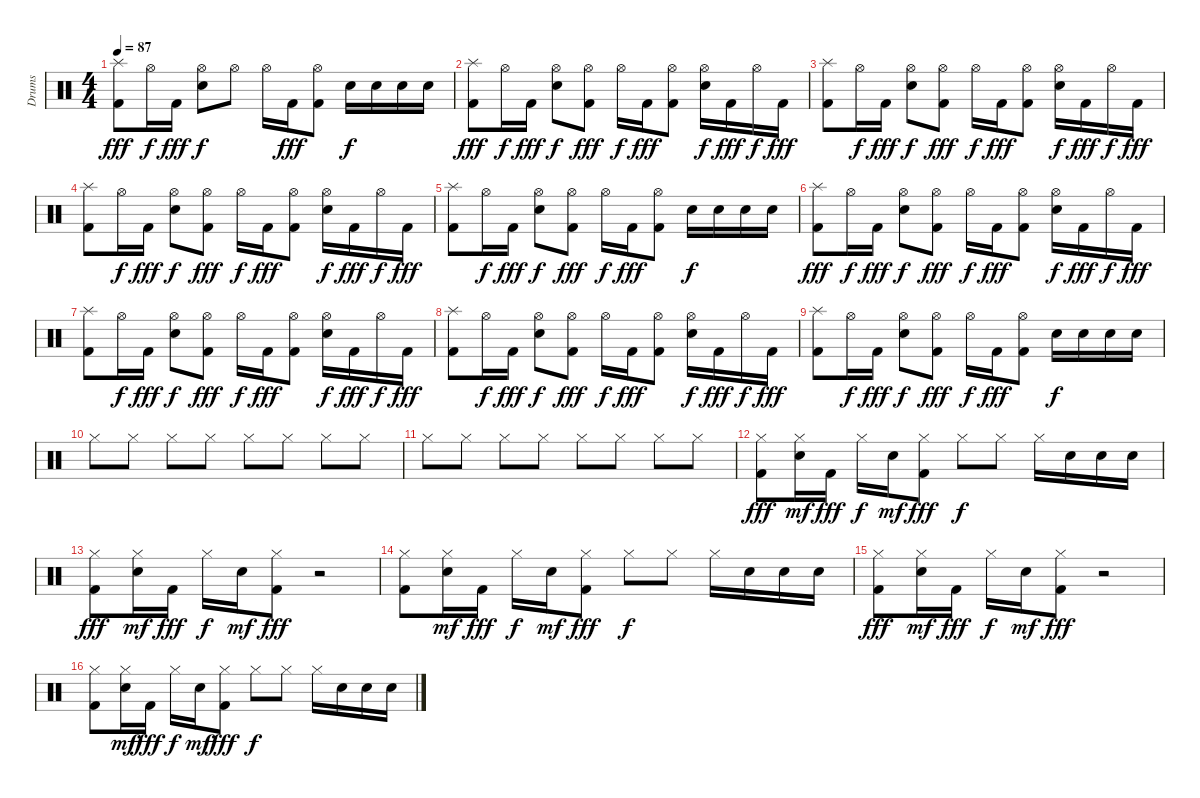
\track ("Drums" "Drums") {instrument percussion}
\staff {score}
\articulation defaults
\ts (4 4)
\tempo 87
\clef neutral
\ks c
("Splash (hit)" "Kick (hit) 2").8{dy fff} "Hi-Hat (open)".16{dy f} "Kick (hit) 2".16{dy fff} ("Hi-Hat (open)" "Snare (hit) 2").8{dy f} "Hi-Hat (open)".8 "Hi-Hat (open)".16 "Kick (hit) 2".16{dy fff} ("Hi-Hat (open)" "Kick (hit) 2").8 "Snare (hit) 2".16{dy f} "Snare (hit) 2".16 "Snare (hit) 2".16 "Snare (hit) 2".16 |
("Splash (hit)" "Kick (hit) 2").8{dy fff} "Hi-Hat (open)".16{dy f} "Kick (hit) 2".16{dy fff} ("Hi-Hat (open)" "Snare (hit) 2").8{dy f} ("Hi-Hat (open)" "Kick (hit) 2").8{dy fff} "Hi-Hat (open)".16{dy f} "Kick (hit) 2".16{dy fff} ("Hi-Hat (open)" "Kick (hit) 2").8 ("Hi-Hat (open)" "Snare (hit) 2").16{dy f} "Kick (hit) 2".16{dy fff} "Hi-Hat (open)".16{dy f} "Kick (hit) 2".16{dy fff} |
("Splash (hit)" "Kick (hit) 2").8 "Hi-Hat (open)".16{dy f} "Kick (hit) 2".16{dy fff} ("Hi-Hat (open)" "Snare (hit) 2").8{dy f} ("Hi-Hat (open)" "Kick (hit) 2").8{dy fff} "Hi-Hat (open)".16{dy f} "Kick (hit) 2".16{dy fff} ("Hi-Hat (open)" "Kick (hit) 2").8 ("Hi-Hat (open)" "Snare (hit) 2").16{dy f} "Kick (hit) 2".16{dy fff} "Hi-Hat (open)".16{dy f} "Kick (hit) 2".16{dy fff} |
("Splash (hit)" "Kick (hit) 2").8 "Hi-Hat (open)".16{dy f} "Kick (hit) 2".16{dy fff} ("Hi-Hat (open)" "Snare (hit) 2").8{dy f} ("Hi-Hat (open)" "Kick (hit) 2").8{dy fff} "Hi-Hat (open)".16{dy f} "Kick (hit) 2".16{dy fff} ("Hi-Hat (open)" "Kick (hit) 2").8 ("Hi-Hat (open)" "Snare (hit) 2").16{dy f} "Kick (hit) 2".16{dy fff} "Hi-Hat (open)".16{dy f} "Kick (hit) 2".16{dy fff} |
("Splash (hit)" "Kick (hit) 2").8 "Hi-Hat (open)".16{dy f} "Kick (hit) 2".16{dy fff} ("Hi-Hat (open)" "Snare (hit) 2").8{dy f} ("Hi-Hat (open)" "Kick (hit) 2").8{dy fff} "Hi-Hat (open)".16{dy f} "Kick (hit) 2".16{dy fff} ("Hi-Hat (open)" "Kick (hit) 2").8 "Snare (hit) 2".16{dy f} "Snare (hit) 2".16 "Snare (hit) 2".16 "Snare (hit) 2".16 |
("Splash (hit)" "Kick (hit) 2").8{dy fff} "Hi-Hat (open)".16{dy f} "Kick (hit) 2".16{dy fff} ("Hi-Hat (open)" "Snare (hit) 2").8{dy f} ("Hi-Hat (open)" "Kick (hit) 2").8{dy fff} "Hi-Hat (open)".16{dy f} "Kick (hit) 2".16{dy fff} ("Hi-Hat (open)" "Kick (hit) 2").8 ("Hi-Hat (open)" "Snare (hit) 2").16{dy f} "Kick (hit) 2".16{dy fff} "Hi-Hat (open)".16{dy f} "Kick (hit) 2".16{dy fff} |
("Splash (hit)" "Kick (hit) 2").8 "Hi-Hat (open)".16{dy f} "Kick (hit) 2".16{dy fff} ("Hi-Hat (open)" "Snare (hit) 2").8{dy f} ("Hi-Hat (open)" "Kick (hit) 2").8{dy fff} "Hi-Hat (open)".16{dy f} "Kick (hit) 2".16{dy fff} ("Hi-Hat (open)" "Kick (hit) 2").8 ("Hi-Hat (open)" "Snare (hit) 2").16{dy f} "Kick (hit) 2".16{dy fff} "Hi-Hat (open)".16{dy f} "Kick (hit) 2".16{dy fff} |
("Splash (hit)" "Kick (hit) 2").8 "Hi-Hat (open)".16{dy f} "Kick (hit) 2".16{dy fff} ("Hi-Hat (open)" "Snare (hit) 2").8{dy f} ("Hi-Hat (open)" "Kick (hit) 2").8{dy fff} "Hi-Hat (open)".16{dy f} "Kick (hit) 2".16{dy fff} ("Hi-Hat (open)" "Kick (hit) 2").8 ("Hi-Hat (open)" "Snare (hit) 2").16{dy f} "Kick (hit) 2".16{dy fff} "Hi-Hat (open)".16{dy f} "Kick (hit) 2".16{dy fff} |
("Splash (hit)" "Kick (hit) 2").8 "Hi-Hat (open)".16{dy f} "Kick (hit) 2".16{dy fff} ("Hi-Hat (open)" "Snare (hit) 2").8{dy f} ("Hi-Hat (open)" "Kick (hit) 2").8{dy fff} "Hi-Hat (open)".16{dy f} "Kick (hit) 2".16{dy fff} ("Hi-Hat (open)" "Kick (hit) 2").8 "Snare (hit) 2".16{dy f} "Snare (hit) 2".16 "Snare (hit) 2".16 "Snare (hit) 2".16 |
"Hi-Hat (closed)".8 "Hi-Hat (closed)".8 "Hi-Hat (closed)".8 "Hi-Hat (closed)".8 "Hi-Hat (closed)".8 "Hi-Hat (closed)".8 "Hi-Hat (closed)".8 "Hi-Hat (closed)".8 |
"Hi-Hat (closed)".8 "Hi-Hat (closed)".8 "Hi-Hat (closed)".8 "Hi-Hat (closed)".8 "Hi-Hat (closed)".8 "Hi-Hat (closed)".8 "Hi-Hat (closed)".8 "Hi-Hat (closed)".8 |
("Hi-Hat (closed)" "Kick (hit) 2").8{dy fff} ("Hi-Hat (closed)" "Snare (hit) 2").16{dy mf} "Kick (hit) 2".16{dy fff} "Hi-Hat (closed)".16{dy f} "Snare (hit) 2".16{dy mf} ("Hi-Hat (closed)" "Kick (hit) 2").8{dy fff} "Hi-Hat (closed)".8{dy f} "Hi-Hat (closed)".8 "Hi-Hat (closed)".16 "Snare (hit) 2".16 "Snare (hit) 2".16 "Snare (hit) 2".16 |
("Hi-Hat (closed)" "Kick (hit) 2").8{dy fff} ("Hi-Hat (closed)" "Snare (hit) 2").16{dy mf} "Kick (hit) 2".16{dy fff} "Hi-Hat (closed)".16{dy f} "Snare (hit) 2".16{dy mf} ("Hi-Hat (closed)" "Kick (hit) 2").8{dy fff} r.2 |
("Hi-Hat (closed)" "Kick (hit) 2").8 ("Hi-Hat (closed)" "Snare (hit) 2").16{dy mf} "Kick (hit) 2".16{dy fff} "Hi-Hat (closed)".16{dy f} "Snare (hit) 2".16{dy mf} ("Hi-Hat (closed)" "Kick (hit) 2").8{dy fff} "Hi-Hat (closed)".8{dy f} "Hi-Hat (closed)".8 "Hi-Hat (closed)".16 "Snare (hit) 2".16 "Snare (hit) 2".16 "Snare (hit) 2".16 |
("Hi-Hat (closed)" "Kick (hit) 2").8{dy fff} ("Hi-Hat (closed)" "Snare (hit) 2").16{dy mf} "Kick (hit) 2".16{dy fff} "Hi-Hat (closed)".16{dy f} "Snare (hit) 2".16{dy mf} ("Hi-Hat (closed)" "Kick (hit) 2").8{dy fff} r.2 |
("Hi-Hat (closed)" "Kick (hit) 2").8 ("Hi-Hat (closed)" "Snare (hit) 2").16{dy mf} "Kick (hit) 2".16{dy fff} "Hi-Hat (closed)".16{dy f} "Snare (hit) 2".16{dy mf} ("Hi-Hat (closed)" "Kick (hit) 2").8{dy fff} "Hi-Hat (closed)".8{dy f} "Hi-Hat (closed)".8 "Hi-Hat (closed)".16 "Snare (hit) 2".16 "Snare (hit) 2".16 "Snare (hit) 2".16
